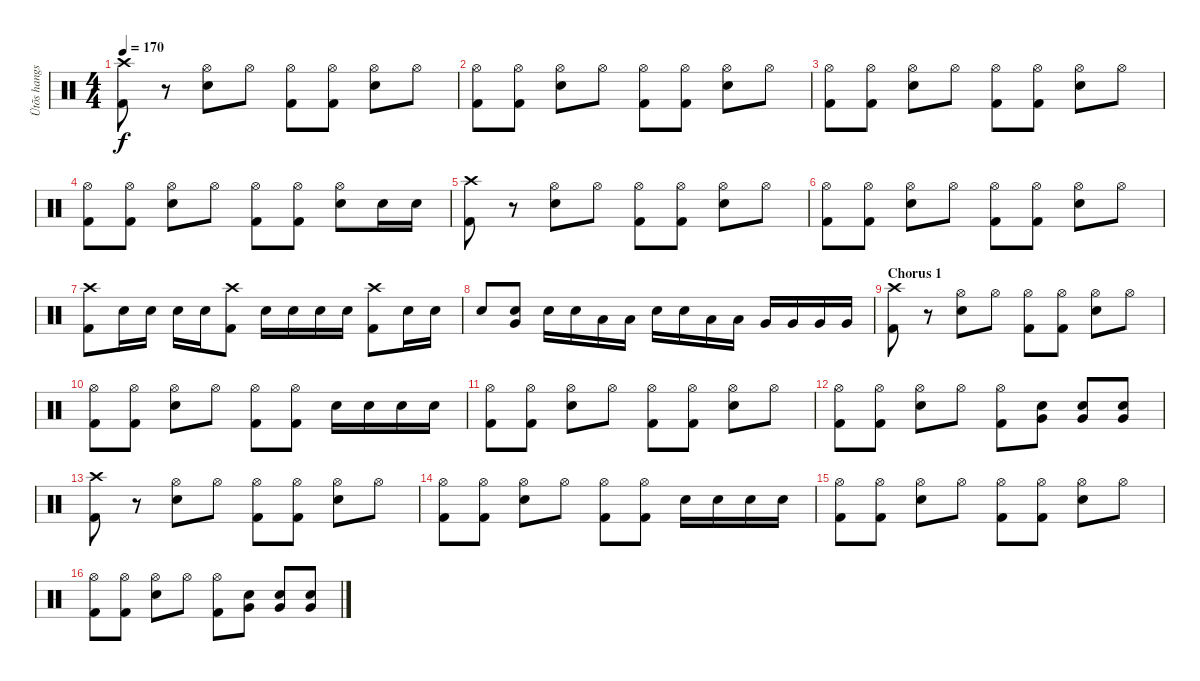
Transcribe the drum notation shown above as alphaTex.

\track ("Ütõs hangszer" "Ütõs hangs") {instrument percussion}
\staff {score}
\articulation defaults
\ts (4 4)
\tempo 170
\clef neutral
\ks c
("Crash high (hit)" "Kick (hit) 2").8{dy f} r.8 ("Hi-Hat (open)" "Electric Snare (hit)").8 "Hi-Hat (open)".8 ("Hi-Hat (open)" "Kick (hit) 2").8 ("Hi-Hat (open)" "Kick (hit) 2").8 ("Hi-Hat (open)" "Electric Snare (hit)").8 "Hi-Hat (open)".8 |
("Hi-Hat (open)" "Kick (hit) 2").8 ("Hi-Hat (open)" "Kick (hit) 2").8 ("Hi-Hat (open)" "Electric Snare (hit)").8 "Hi-Hat (open)".8 ("Hi-Hat (open)" "Kick (hit) 2").8 ("Hi-Hat (open)" "Kick (hit) 2").8 ("Hi-Hat (open)" "Electric Snare (hit)").8 "Hi-Hat (open)".8 |
("Hi-Hat (open)" "Kick (hit) 2").8 ("Hi-Hat (open)" "Kick (hit) 2").8 ("Hi-Hat (open)" "Electric Snare (hit)").8 "Hi-Hat (open)".8 ("Hi-Hat (open)" "Kick (hit) 2").8 ("Hi-Hat (open)" "Kick (hit) 2").8 ("Hi-Hat (open)" "Electric Snare (hit)").8 "Hi-Hat (open)".8 |
("Hi-Hat (open)" "Kick (hit) 2").8 ("Hi-Hat (open)" "Kick (hit) 2").8 ("Hi-Hat (open)" "Electric Snare (hit)").8 "Hi-Hat (open)".8 ("Hi-Hat (open)" "Kick (hit) 2").8 ("Hi-Hat (open)" "Kick (hit) 2").8 ("Hi-Hat (open)" "Electric Snare (hit)").8 "Electric Snare (hit)".16 "Electric Snare (hit)".16 |
("Crash high (hit)" "Kick (hit) 2").8 r.8 ("Hi-Hat (open)" "Electric Snare (hit)").8 "Hi-Hat (open)".8 ("Hi-Hat (open)" "Kick (hit) 2").8 ("Hi-Hat (open)" "Kick (hit) 2").8 ("Hi-Hat (open)" "Electric Snare (hit)").8 "Hi-Hat (open)".8 |
("Hi-Hat (open)" "Kick (hit) 2").8 ("Hi-Hat (open)" "Kick (hit) 2").8 ("Hi-Hat (open)" "Electric Snare (hit)").8 "Hi-Hat (open)".8 ("Hi-Hat (open)" "Kick (hit) 2").8 ("Hi-Hat (open)" "Kick (hit) 2").8 ("Hi-Hat (open)" "Electric Snare (hit)").8 "Hi-Hat (open)".8 |
("Crash high (hit)" "Kick (hit) 2").8 "Electric Snare (hit)".16 "Electric Snare (hit)".16 "Electric Snare (hit)".16 "Electric Snare (hit)".16 ("Crash high (hit)" "Kick (hit) 2").8 "Electric Snare (hit)".16 "Electric Snare (hit)".16 "Electric Snare (hit)".16 "Electric Snare (hit)".16 ("Crash high (hit)" "Kick (hit) 2").8 "Electric Snare (hit)".16 "Electric Snare (hit)".16 |
"Electric Snare (hit)".8 ("Very Low Tom (hit)" "Electric Snare (hit)").8 "Electric Snare (hit)".16 "Electric Snare (hit)".16 "Low Tom (hit)".16 "Low Tom (hit)".16 "Electric Snare (hit)".16 "Electric Snare (hit)".16 "Low Tom (hit)".16 "Low Tom (hit)".16 "Very Low Tom (hit)".16 "Very Low Tom (hit)".16 "Very Low Tom (hit)".16 "Very Low Tom (hit)".16 |
\section ("" "Chorus 1")
("Crash high (hit)" "Kick (hit) 2").8 r.8 ("Hi-Hat (open)" "Electric Snare (hit)").8 "Hi-Hat (open)".8 ("Hi-Hat (open)" "Kick (hit) 2").8 ("Hi-Hat (open)" "Kick (hit) 2").8 ("Hi-Hat (open)" "Electric Snare (hit)").8 "Hi-Hat (open)".8 |
("Hi-Hat (open)" "Kick (hit) 2").8 ("Hi-Hat (open)" "Kick (hit) 2").8 ("Hi-Hat (open)" "Electric Snare (hit)").8 "Hi-Hat (open)".8 ("Hi-Hat (open)" "Kick (hit) 2").8 ("Hi-Hat (open)" "Kick (hit) 2").8 "Electric Snare (hit)".16 "Electric Snare (hit)".16 "Electric Snare (hit)".16 "Electric Snare (hit)".16 |
("Hi-Hat (open)" "Kick (hit) 2").8 ("Hi-Hat (open)" "Kick (hit) 2").8 ("Hi-Hat (open)" "Electric Snare (hit)").8 "Hi-Hat (open)".8 ("Hi-Hat (open)" "Kick (hit) 2").8 ("Hi-Hat (open)" "Kick (hit) 2").8 ("Hi-Hat (open)" "Electric Snare (hit)").8 "Hi-Hat (open)".8 |
("Hi-Hat (open)" "Kick (hit) 2").8 ("Hi-Hat (open)" "Kick (hit) 2").8 ("Hi-Hat (open)" "Electric Snare (hit)").8 "Hi-Hat (open)".8 ("Hi-Hat (open)" "Kick (hit) 2").8 ("Very Low Tom (hit)" "Electric Snare (hit)").8 ("Very Low Tom (hit)" "Electric Snare (hit)").8 ("Very Low Tom (hit)" "Electric Snare (hit)").8 |
("Crash high (hit)" "Kick (hit) 2").8 r.8 ("Hi-Hat (open)" "Electric Snare (hit)").8 "Hi-Hat (open)".8 ("Hi-Hat (open)" "Kick (hit) 2").8 ("Hi-Hat (open)" "Kick (hit) 2").8 ("Hi-Hat (open)" "Electric Snare (hit)").8 "Hi-Hat (open)".8 |
("Hi-Hat (open)" "Kick (hit) 2").8 ("Hi-Hat (open)" "Kick (hit) 2").8 ("Hi-Hat (open)" "Electric Snare (hit)").8 "Hi-Hat (open)".8 ("Hi-Hat (open)" "Kick (hit) 2").8 ("Hi-Hat (open)" "Kick (hit) 2").8 "Electric Snare (hit)".16 "Electric Snare (hit)".16 "Electric Snare (hit)".16 "Electric Snare (hit)".16 |
("Hi-Hat (open)" "Kick (hit) 2").8 ("Hi-Hat (open)" "Kick (hit) 2").8 ("Hi-Hat (open)" "Electric Snare (hit)").8 "Hi-Hat (open)".8 ("Hi-Hat (open)" "Kick (hit) 2").8 ("Hi-Hat (open)" "Kick (hit) 2").8 ("Hi-Hat (open)" "Electric Snare (hit)").8 "Hi-Hat (open)".8 |
("Hi-Hat (open)" "Kick (hit) 2").8 ("Hi-Hat (open)" "Kick (hit) 2").8 ("Hi-Hat (open)" "Electric Snare (hit)").8 "Hi-Hat (open)".8 ("Hi-Hat (open)" "Kick (hit) 2").8 ("Very Low Tom (hit)" "Electric Snare (hit)").8 ("Very Low Tom (hit)" "Electric Snare (hit)").8 ("Very Low Tom (hit)" "Electric Snare (hit)").8
